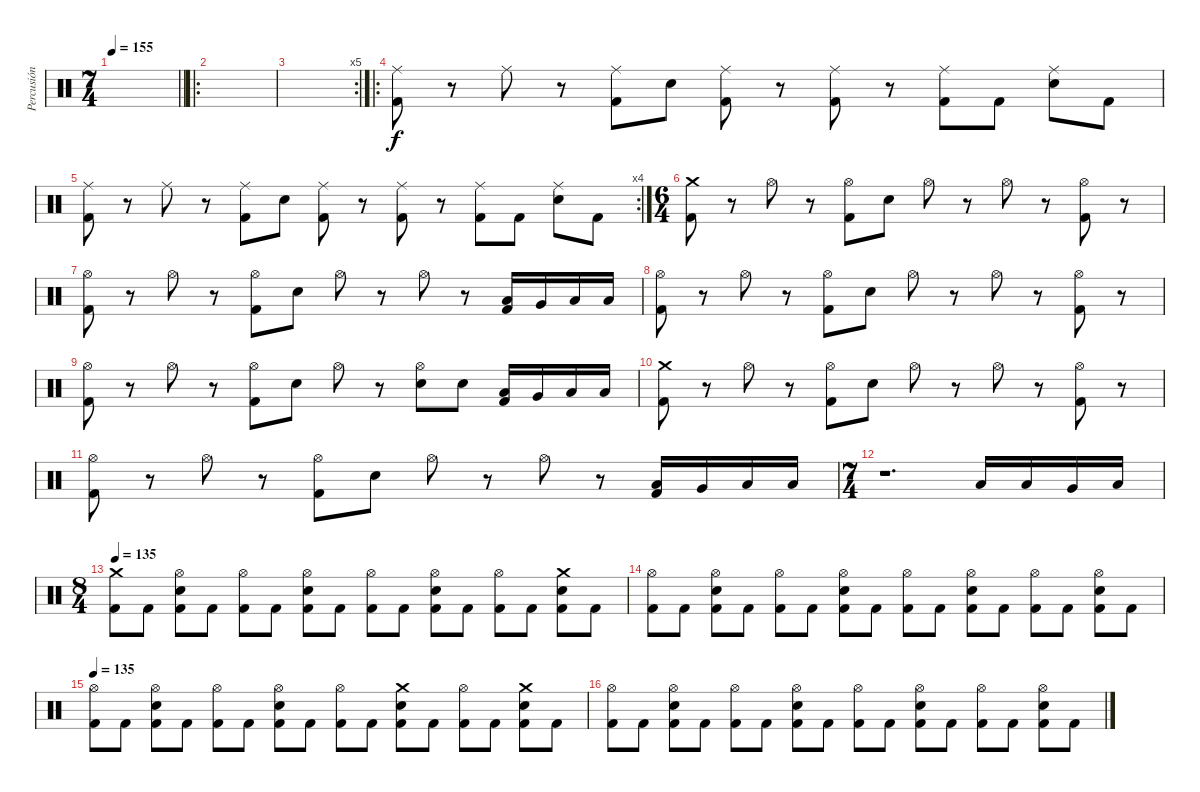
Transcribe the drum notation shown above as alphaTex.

\track ("Percusión" "Percusión") {instrument percussion}
\staff {score}
\articulation defaults
\ts (7 4)
\tempo 155
\clef neutral
\barLineRight lightlight
\ks c
|
\ro
|
\rc 5
|
\ro
("Ride (middle)" "Kick (hit) 2").8 r.8 "Ride (middle)".8 r.8 ("Ride (middle)" "Kick (hit) 2").8 "Electric Snare (hit)".8 ("Ride (middle)" "Kick (hit) 2").8 r.8 ("Ride (middle)" "Kick (hit) 2").8 r.8 ("Ride (middle)" "Kick (hit) 2").8 "Kick (hit) 2".8 ("Ride (middle)" "Electric Snare (hit)").8 "Kick (hit) 2".8 |
\rc 4
("Ride (middle)" "Kick (hit) 2").8 r.8 "Ride (middle)".8 r.8 ("Ride (middle)" "Kick (hit) 2").8 "Electric Snare (hit)".8 ("Ride (middle)" "Kick (hit) 2").8 r.8 ("Ride (middle)" "Kick (hit) 2").8 r.8 ("Ride (middle)" "Kick (hit) 2").8 "Kick (hit) 2".8 ("Ride (middle)" "Electric Snare (hit)").8 "Kick (hit) 2".8 |
\ts (6 4)
("Crash medium (hit)" "Kick (hit) 2").8 r.8 "Hi-Hat (open)".8 r.8 ("Hi-Hat (open)" "Kick (hit) 2").8 "Electric Snare (hit)".8 "Hi-Hat (open)".8 r.8 "Hi-Hat (open)".8 r.8 ("Hi-Hat (open)" "Kick (hit) 2").8 r.8 |
("Hi-Hat (open)" "Kick (hit) 2").8 r.8 "Hi-Hat (open)".8 r.8 ("Hi-Hat (open)" "Kick (hit) 2").8 "Electric Snare (hit)".8 "Hi-Hat (open)".8 r.8 "Hi-Hat (open)".8 r.8 ("Low Tom (hit)" "Kick (hit) 2").16 "Very Low Tom (hit)".16 "Low Floor Tom (hit)".16 "Low Floor Tom (hit)".16 |
("Hi-Hat (open)" "Kick (hit) 2").8 r.8 "Hi-Hat (open)".8 r.8 ("Hi-Hat (open)" "Kick (hit) 2").8 "Electric Snare (hit)".8 "Hi-Hat (open)".8 r.8 "Hi-Hat (open)".8 r.8 ("Hi-Hat (open)" "Kick (hit) 2").8 r.8 |
("Hi-Hat (open)" "Kick (hit) 2").8 r.8 "Hi-Hat (open)".8 r.8 ("Hi-Hat (open)" "Kick (hit) 2").8 "Electric Snare (hit)".8 "Hi-Hat (open)".8 r.8 ("Hi-Hat (open)" "Electric Snare (hit)").8 "Electric Snare (hit)".8 ("Low Tom (hit)" "Kick (hit) 2").16 "Very Low Tom (hit)".16 "Low Floor Tom (hit)".16 "Low Floor Tom (hit)".16 |
("Crash medium (hit)" "Kick (hit) 2").8 r.8 "Hi-Hat (open)".8 r.8 ("Hi-Hat (open)" "Kick (hit) 2").8 "Electric Snare (hit)".8 "Hi-Hat (open)".8 r.8 "Hi-Hat (open)".8 r.8 ("Hi-Hat (open)" "Kick (hit) 2").8 r.8 |
("Hi-Hat (open)" "Kick (hit) 2").8 r.8 "Hi-Hat (open)".8 r.8 ("Hi-Hat (open)" "Kick (hit) 2").8 "Electric Snare (hit)".8 "Hi-Hat (open)".8 r.8 "Hi-Hat (open)".8 r.8 ("Low Tom (hit)" "Kick (hit) 2").16 "Very Low Tom (hit)".16 "Low Floor Tom (hit)".16 "Low Floor Tom (hit)".16 |
\ts (7 4)
r.1{d} "Low Tom (hit)".16 "Low Tom (hit)".16 "Very Low Tom (hit)".16 "Low Floor Tom (hit)".16 |
\ts (8 4)
\tempo 135
("Crash medium (hit)" "Kick (hit) 2").8 "Kick (hit) 2".8 ("Hi-Hat (open)" "Electric Snare (hit)" "Kick (hit) 2").8 "Kick (hit) 2".8 ("Hi-Hat (open)" "Kick (hit) 2").8 "Kick (hit) 2".8 ("Hi-Hat (open)" "Electric Snare (hit)" "Kick (hit) 2").8 "Kick (hit) 2".8 ("Hi-Hat (open)" "Kick (hit) 2").8 "Kick (hit) 2".8 ("Hi-Hat (open)" "Electric Snare (hit)" "Kick (hit) 2").8 "Kick (hit) 2".8 ("Hi-Hat (open)" "Kick (hit) 2").8 "Kick (hit) 2".8 ("Crash medium (hit)" "Electric Snare (hit)" "Kick (hit) 2").8 "Kick (hit) 2".8 |
("Hi-Hat (open)" "Kick (hit) 2").8 "Kick (hit) 2".8 ("Hi-Hat (open)" "Electric Snare (hit)" "Kick (hit) 2").8 "Kick (hit) 2".8 ("Hi-Hat (open)" "Kick (hit) 2").8 "Kick (hit) 2".8 ("Hi-Hat (open)" "Electric Snare (hit)" "Kick (hit) 2").8 "Kick (hit) 2".8 ("Hi-Hat (open)" "Kick (hit) 2").8 "Kick (hit) 2".8 ("Hi-Hat (open)" "Electric Snare (hit)" "Kick (hit) 2").8 "Kick (hit) 2".8 ("Hi-Hat (open)" "Kick (hit) 2").8 "Kick (hit) 2".8 ("Hi-Hat (open)" "Electric Snare (hit)" "Kick (hit) 2").8 "Kick (hit) 2".8 |
\tempo 135
("Hi-Hat (open)" "Kick (hit) 2").8 "Kick (hit) 2".8 ("Hi-Hat (open)" "Electric Snare (hit)" "Kick (hit) 2").8 "Kick (hit) 2".8 ("Hi-Hat (open)" "Kick (hit) 2").8 "Kick (hit) 2".8 ("Hi-Hat (open)" "Electric Snare (hit)" "Kick (hit) 2").8 "Kick (hit) 2".8 ("Hi-Hat (open)" "Kick (hit) 2").8 "Kick (hit) 2".8 ("Crash medium (hit)" "Electric Snare (hit)" "Kick (hit) 2").8 "Kick (hit) 2".8 ("Hi-Hat (open)" "Kick (hit) 2").8 "Kick (hit) 2".8 ("Crash medium (hit)" "Electric Snare (hit)" "Kick (hit) 2").8 "Kick (hit) 2".8 |
("Hi-Hat (open)" "Kick (hit) 2").8 "Kick (hit) 2".8 ("Hi-Hat (open)" "Electric Snare (hit)" "Kick (hit) 2").8 "Kick (hit) 2".8 ("Hi-Hat (open)" "Kick (hit) 2").8 "Kick (hit) 2".8 ("Hi-Hat (open)" "Electric Snare (hit)" "Kick (hit) 2").8 "Kick (hit) 2".8 ("Hi-Hat (open)" "Kick (hit) 2").8 "Kick (hit) 2".8 ("Hi-Hat (open)" "Electric Snare (hit)" "Kick (hit) 2").8 "Kick (hit) 2".8 ("Hi-Hat (open)" "Kick (hit) 2").8 "Kick (hit) 2".8 ("Hi-Hat (open)" "Electric Snare (hit)" "Kick (hit) 2").8 "Kick (hit) 2".8
